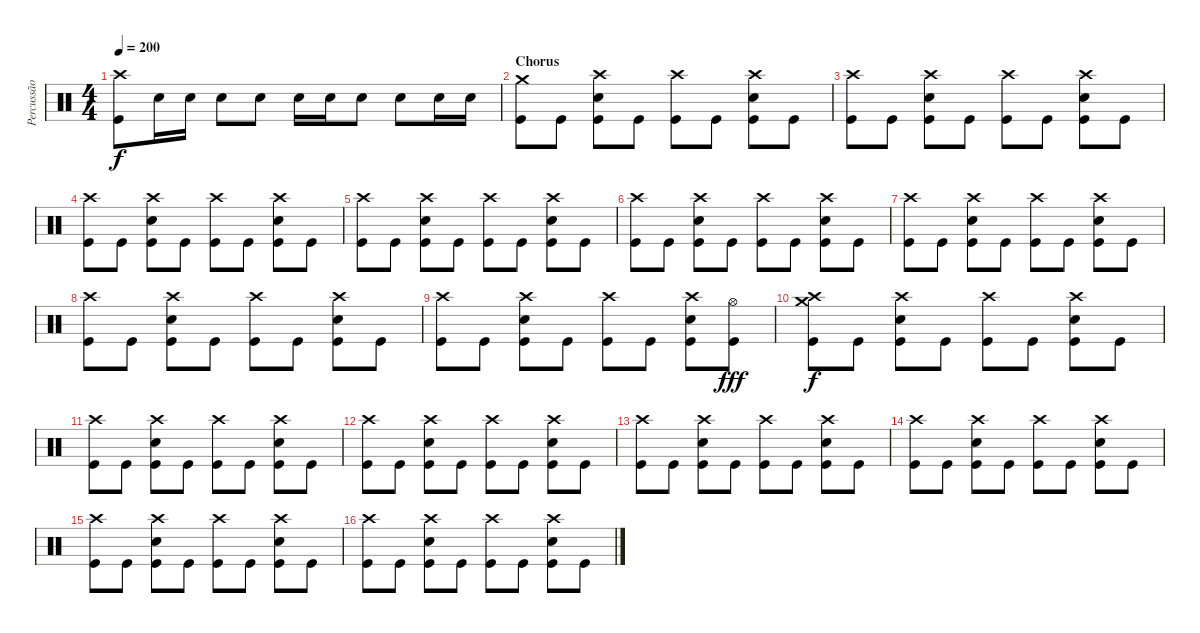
\track ("Percussão" "Percussão") {instrument percussion}
\staff {score}
\articulation defaults
\ts (4 4)
\tempo 200
\clef neutral
\ks c
("Crash high (hit)" "Kick (hit)").8{dy f} "Electric Snare (hit)".16 "Electric Snare (hit)".16 "Electric Snare (hit)".8 "Electric Snare (hit)".8 "Electric Snare (hit)".16 "Electric Snare (hit)".16 "Electric Snare (hit)".8 "Electric Snare (hit)".8 "Electric Snare (hit)".16 "Electric Snare (hit)".16 |
\section ("" "Chorus")
("Crash medium (hit)" "Kick (hit)").8 "Kick (hit)".8 ("Crash high (hit)" "Electric Snare (hit)" "Kick (hit)").8 "Kick (hit)".8 ("Crash high (hit)" "Kick (hit)").8 "Kick (hit)".8 ("Crash high (hit)" "Electric Snare (hit)" "Kick (hit)").8 "Kick (hit)".8 |
("Crash high (hit)" "Kick (hit)").8 "Kick (hit)".8 ("Crash high (hit)" "Electric Snare (hit)" "Kick (hit)").8 "Kick (hit)".8 ("Crash high (hit)" "Kick (hit)").8 "Kick (hit)".8 ("Crash high (hit)" "Electric Snare (hit)" "Kick (hit)").8 "Kick (hit)".8 |
("Crash high (hit)" "Kick (hit)").8 "Kick (hit)".8 ("Crash high (hit)" "Electric Snare (hit)" "Kick (hit)").8 "Kick (hit)".8 ("Crash high (hit)" "Kick (hit)").8 "Kick (hit)".8 ("Crash high (hit)" "Electric Snare (hit)" "Kick (hit)").8 "Kick (hit)".8 |
("Crash high (hit)" "Kick (hit)").8 "Kick (hit)".8 ("Crash high (hit)" "Electric Snare (hit)" "Kick (hit)").8 "Kick (hit)".8 ("Crash high (hit)" "Kick (hit)").8 "Kick (hit)".8 ("Crash high (hit)" "Electric Snare (hit)" "Kick (hit)").8 "Kick (hit)".8 |
("Crash high (hit)" "Kick (hit)").8 "Kick (hit)".8 ("Crash high (hit)" "Electric Snare (hit)" "Kick (hit)").8 "Kick (hit)".8 ("Crash high (hit)" "Kick (hit)").8 "Kick (hit)".8 ("Crash high (hit)" "Electric Snare (hit)" "Kick (hit)").8 "Kick (hit)".8 |
("Crash high (hit)" "Kick (hit)").8 "Kick (hit)".8 ("Crash high (hit)" "Electric Snare (hit)" "Kick (hit)").8 "Kick (hit)".8 ("Crash high (hit)" "Kick (hit)").8 "Kick (hit)".8 ("Crash high (hit)" "Electric Snare (hit)" "Kick (hit)").8 "Kick (hit)".8 |
("Crash high (hit)" "Kick (hit)").8 "Kick (hit)".8 ("Crash high (hit)" "Electric Snare (hit)" "Kick (hit)").8 "Kick (hit)".8 ("Crash high (hit)" "Kick (hit)").8 "Kick (hit)".8 ("Crash high (hit)" "Electric Snare (hit)" "Kick (hit)").8 "Kick (hit)".8 |
("Crash high (hit)" "Kick (hit)").8 "Kick (hit)".8 ("Crash high (hit)" "Electric Snare (hit)" "Kick (hit)").8 "Kick (hit)".8 ("Crash high (hit)" "Kick (hit)").8 "Kick (hit)".8 ("Crash high (hit)" "Electric Snare (hit)" "Kick (hit)").8 ("Hi-Hat (open)" "Kick (hit)").8{dy fff} |
("Crash medium (hit)" "Crash high (hit)" "Kick (hit)").8{dy f} "Kick (hit)".8 ("Crash high (hit)" "Electric Snare (hit)" "Kick (hit)").8 "Kick (hit)".8 ("Crash high (hit)" "Kick (hit)").8 "Kick (hit)".8 ("Crash high (hit)" "Electric Snare (hit)" "Kick (hit)").8 "Kick (hit)".8 |
("Crash high (hit)" "Kick (hit)").8 "Kick (hit)".8 ("Crash high (hit)" "Electric Snare (hit)" "Kick (hit)").8 "Kick (hit)".8 ("Crash high (hit)" "Kick (hit)").8 "Kick (hit)".8 ("Crash high (hit)" "Electric Snare (hit)" "Kick (hit)").8 "Kick (hit)".8 |
("Crash high (hit)" "Kick (hit)").8 "Kick (hit)".8 ("Crash high (hit)" "Electric Snare (hit)" "Kick (hit)").8 "Kick (hit)".8 ("Crash high (hit)" "Kick (hit)").8 "Kick (hit)".8 ("Crash high (hit)" "Electric Snare (hit)" "Kick (hit)").8 "Kick (hit)".8 |
("Crash high (hit)" "Kick (hit)").8 "Kick (hit)".8 ("Crash high (hit)" "Electric Snare (hit)" "Kick (hit)").8 "Kick (hit)".8 ("Crash high (hit)" "Kick (hit)").8 "Kick (hit)".8 ("Crash high (hit)" "Electric Snare (hit)" "Kick (hit)").8 "Kick (hit)".8 |
("Crash high (hit)" "Kick (hit)").8 "Kick (hit)".8 ("Crash high (hit)" "Electric Snare (hit)" "Kick (hit)").8 "Kick (hit)".8 ("Crash high (hit)" "Kick (hit)").8 "Kick (hit)".8 ("Crash high (hit)" "Electric Snare (hit)" "Kick (hit)").8 "Kick (hit)".8 |
("Crash high (hit)" "Kick (hit)").8 "Kick (hit)".8 ("Crash high (hit)" "Electric Snare (hit)" "Kick (hit)").8 "Kick (hit)".8 ("Crash high (hit)" "Kick (hit)").8 "Kick (hit)".8 ("Crash high (hit)" "Electric Snare (hit)" "Kick (hit)").8 "Kick (hit)".8 |
("Crash high (hit)" "Kick (hit)").8 "Kick (hit)".8 ("Crash high (hit)" "Electric Snare (hit)" "Kick (hit)").8 "Kick (hit)".8 ("Crash high (hit)" "Kick (hit)").8 "Kick (hit)".8 ("Crash high (hit)" "Electric Snare (hit)" "Kick (hit)").8 "Kick (hit)".8
